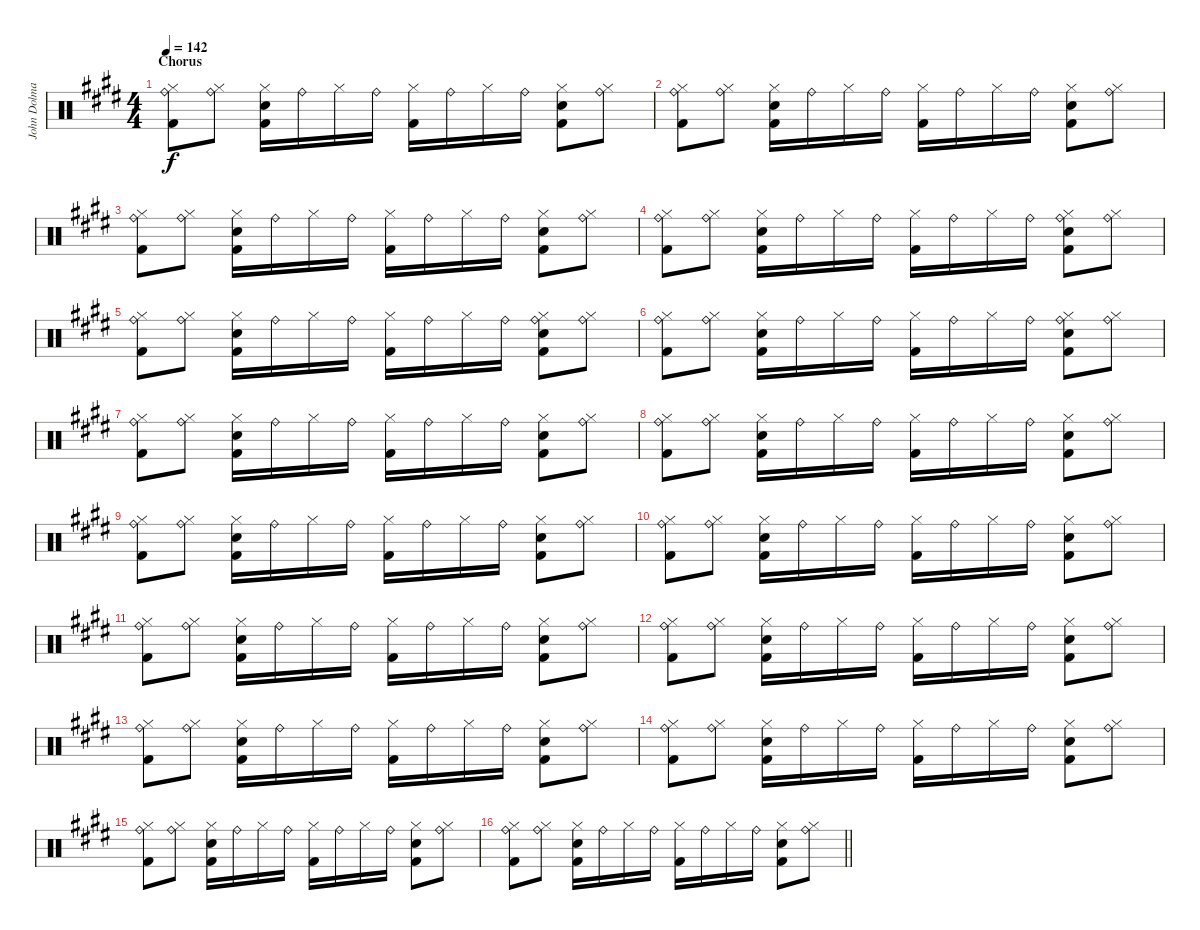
\track ("John Dolmayan [Drums]" "John Dolma") {instrument percussion}
\staff {score}
\articulation defaults
\ts (4 4)
\section ("" "Chorus")
\tempo 142
\clef neutral
\ks c#minor
("Ride (bell)" "Hi-Hat (closed)" "Kick (hit) 2").8{dy f} ("Ride (bell)" "Hi-Hat (closed)").8 ("Hi-Hat (closed)" "Electric Snare (hit)" "Kick (hit) 2").16 "Ride (bell)".16 "Hi-Hat (closed)".16 "Ride (bell)".16 ("Hi-Hat (closed)" "Kick (hit) 2").16 "Ride (bell)".16 "Hi-Hat (closed)".16 "Ride (bell)".16 ("Hi-Hat (closed)" "Electric Snare (hit)" "Kick (hit) 2").8 ("Ride (bell)" "Hi-Hat (closed)").8 |
("Ride (bell)" "Hi-Hat (closed)" "Kick (hit) 2").8 ("Ride (bell)" "Hi-Hat (closed)").8 ("Hi-Hat (closed)" "Electric Snare (hit)" "Kick (hit) 2").16 "Ride (bell)".16 "Hi-Hat (closed)".16 "Ride (bell)".16 ("Hi-Hat (closed)" "Kick (hit) 2").16 "Ride (bell)".16 "Hi-Hat (closed)".16 "Ride (bell)".16 ("Hi-Hat (closed)" "Electric Snare (hit)" "Kick (hit) 2").8 ("Ride (bell)" "Hi-Hat (closed)").8 |
("Ride (bell)" "Hi-Hat (closed)" "Kick (hit) 2").8 ("Ride (bell)" "Hi-Hat (closed)").8 ("Hi-Hat (closed)" "Electric Snare (hit)" "Kick (hit) 2").16 "Ride (bell)".16 "Hi-Hat (closed)".16 "Ride (bell)".16 ("Hi-Hat (closed)" "Kick (hit) 2").16 "Ride (bell)".16 "Hi-Hat (closed)".16 "Ride (bell)".16 ("Hi-Hat (closed)" "Electric Snare (hit)" "Kick (hit) 2").8 ("Ride (bell)" "Hi-Hat (closed)").8 |
("Ride (bell)" "Hi-Hat (closed)" "Kick (hit) 2").8 ("Ride (bell)" "Hi-Hat (closed)").8 ("Hi-Hat (closed)" "Electric Snare (hit)" "Kick (hit) 2").16 "Ride (bell)".16 "Hi-Hat (closed)".16 "Ride (bell)".16 ("Hi-Hat (closed)" "Kick (hit) 2").16 "Ride (bell)".16 "Hi-Hat (closed)".16 "Ride (bell)".16 ("Ride (bell)" "Hi-Hat (closed)" "Electric Snare (hit)" "Kick (hit) 2").8 ("Ride (bell)" "Hi-Hat (closed)").8 |
("Ride (bell)" "Hi-Hat (closed)" "Kick (hit) 2").8 ("Ride (bell)" "Hi-Hat (closed)").8 ("Hi-Hat (closed)" "Electric Snare (hit)" "Kick (hit) 2").16 "Ride (bell)".16 "Hi-Hat (closed)".16 "Ride (bell)".16 ("Hi-Hat (closed)" "Kick (hit) 2").16 "Ride (bell)".16 "Hi-Hat (closed)".16 "Ride (bell)".16 ("Ride (bell)" "Hi-Hat (closed)" "Electric Snare (hit)" "Kick (hit) 2").8 ("Ride (bell)" "Hi-Hat (closed)").8 |
("Ride (bell)" "Hi-Hat (closed)" "Kick (hit) 2").8 ("Ride (bell)" "Hi-Hat (closed)").8 ("Hi-Hat (closed)" "Electric Snare (hit)" "Kick (hit) 2").16 "Ride (bell)".16 "Hi-Hat (closed)".16 "Ride (bell)".16 ("Hi-Hat (closed)" "Kick (hit) 2").16 "Ride (bell)".16 "Hi-Hat (closed)".16 "Ride (bell)".16 ("Ride (bell)" "Hi-Hat (closed)" "Electric Snare (hit)" "Kick (hit) 2").8 ("Ride (bell)" "Hi-Hat (closed)").8 |
("Ride (bell)" "Hi-Hat (closed)" "Kick (hit) 2").8 ("Ride (bell)" "Hi-Hat (closed)").8 ("Hi-Hat (closed)" "Electric Snare (hit)" "Kick (hit) 2").16 "Ride (bell)".16 "Hi-Hat (closed)".16 "Ride (bell)".16 ("Hi-Hat (closed)" "Kick (hit) 2").16 "Ride (bell)".16 "Hi-Hat (closed)".16 "Ride (bell)".16 ("Hi-Hat (closed)" "Electric Snare (hit)" "Kick (hit) 2").8 ("Ride (bell)" "Hi-Hat (closed)").8 |
("Ride (bell)" "Hi-Hat (closed)" "Kick (hit) 2").8 ("Ride (bell)" "Hi-Hat (closed)").8 ("Hi-Hat (closed)" "Electric Snare (hit)" "Kick (hit) 2").16 "Ride (bell)".16 "Hi-Hat (closed)".16 "Ride (bell)".16 ("Hi-Hat (closed)" "Kick (hit) 2").16 "Ride (bell)".16 "Hi-Hat (closed)".16 "Ride (bell)".16 ("Hi-Hat (closed)" "Electric Snare (hit)" "Kick (hit) 2").8 ("Ride (bell)" "Hi-Hat (closed)").8 |
("Ride (bell)" "Hi-Hat (closed)" "Kick (hit) 2").8 ("Ride (bell)" "Hi-Hat (closed)").8 ("Hi-Hat (closed)" "Electric Snare (hit)" "Kick (hit) 2").16 "Ride (bell)".16 "Hi-Hat (closed)".16 "Ride (bell)".16 ("Hi-Hat (closed)" "Kick (hit) 2").16 "Ride (bell)".16 "Hi-Hat (closed)".16 "Ride (bell)".16 ("Hi-Hat (closed)" "Electric Snare (hit)" "Kick (hit) 2").8 ("Ride (bell)" "Hi-Hat (closed)").8 |
("Ride (bell)" "Hi-Hat (closed)" "Kick (hit) 2").8 ("Ride (bell)" "Hi-Hat (closed)").8 ("Hi-Hat (closed)" "Electric Snare (hit)" "Kick (hit) 2").16 "Ride (bell)".16 "Hi-Hat (closed)".16 "Ride (bell)".16 ("Hi-Hat (closed)" "Kick (hit) 2").16 "Ride (bell)".16 "Hi-Hat (closed)".16 "Ride (bell)".16 ("Hi-Hat (closed)" "Electric Snare (hit)" "Kick (hit) 2").8 ("Ride (bell)" "Hi-Hat (closed)").8 |
("Ride (bell)" "Hi-Hat (closed)" "Kick (hit) 2").8 ("Ride (bell)" "Hi-Hat (closed)").8 ("Hi-Hat (closed)" "Electric Snare (hit)" "Kick (hit) 2").16 "Ride (bell)".16 "Hi-Hat (closed)".16 "Ride (bell)".16 ("Hi-Hat (closed)" "Kick (hit) 2").16 "Ride (bell)".16 "Hi-Hat (closed)".16 "Ride (bell)".16 ("Hi-Hat (closed)" "Electric Snare (hit)" "Kick (hit) 2").8 ("Ride (bell)" "Hi-Hat (closed)").8 |
("Ride (bell)" "Hi-Hat (closed)" "Kick (hit) 2").8 ("Ride (bell)" "Hi-Hat (closed)").8 ("Hi-Hat (closed)" "Electric Snare (hit)" "Kick (hit) 2").16 "Ride (bell)".16 "Hi-Hat (closed)".16 "Ride (bell)".16 ("Hi-Hat (closed)" "Kick (hit) 2").16 "Ride (bell)".16 "Hi-Hat (closed)".16 "Ride (bell)".16 ("Hi-Hat (closed)" "Electric Snare (hit)" "Kick (hit) 2").8 ("Ride (bell)" "Hi-Hat (closed)").8 |
("Ride (bell)" "Hi-Hat (closed)" "Kick (hit) 2").8 ("Ride (bell)" "Hi-Hat (closed)").8 ("Hi-Hat (closed)" "Electric Snare (hit)" "Kick (hit) 2").16 "Ride (bell)".16 "Hi-Hat (closed)".16 "Ride (bell)".16 ("Hi-Hat (closed)" "Kick (hit) 2").16 "Ride (bell)".16 "Hi-Hat (closed)".16 "Ride (bell)".16 ("Hi-Hat (closed)" "Electric Snare (hit)" "Kick (hit) 2").8 ("Ride (bell)" "Hi-Hat (closed)").8 |
("Ride (bell)" "Hi-Hat (closed)" "Kick (hit) 2").8 ("Ride (bell)" "Hi-Hat (closed)").8 ("Hi-Hat (closed)" "Electric Snare (hit)" "Kick (hit) 2").16 "Ride (bell)".16 "Hi-Hat (closed)".16 "Ride (bell)".16 ("Hi-Hat (closed)" "Kick (hit) 2").16 "Ride (bell)".16 "Hi-Hat (closed)".16 "Ride (bell)".16 ("Hi-Hat (closed)" "Electric Snare (hit)" "Kick (hit) 2").8 ("Ride (bell)" "Hi-Hat (closed)").8 |
("Ride (bell)" "Hi-Hat (closed)" "Kick (hit) 2").8 ("Ride (bell)" "Hi-Hat (closed)").8 ("Hi-Hat (closed)" "Electric Snare (hit)" "Kick (hit) 2").16 "Ride (bell)".16 "Hi-Hat (closed)".16 "Ride (bell)".16 ("Hi-Hat (closed)" "Kick (hit) 2").16 "Ride (bell)".16 "Hi-Hat (closed)".16 "Ride (bell)".16 ("Hi-Hat (closed)" "Electric Snare (hit)" "Kick (hit) 2").8 ("Ride (bell)" "Hi-Hat (closed)").8 |
\barLineRight lightlight
("Ride (bell)" "Hi-Hat (closed)" "Kick (hit) 2").8 ("Ride (bell)" "Hi-Hat (closed)").8 ("Hi-Hat (closed)" "Electric Snare (hit)" "Kick (hit) 2").16 "Ride (bell)".16 "Hi-Hat (closed)".16 "Ride (bell)".16 ("Hi-Hat (closed)" "Kick (hit) 2").16 "Ride (bell)".16 "Hi-Hat (closed)".16 "Ride (bell)".16 ("Hi-Hat (closed)" "Electric Snare (hit)" "Kick (hit) 2").8 ("Ride (bell)" "Hi-Hat (closed)").8
